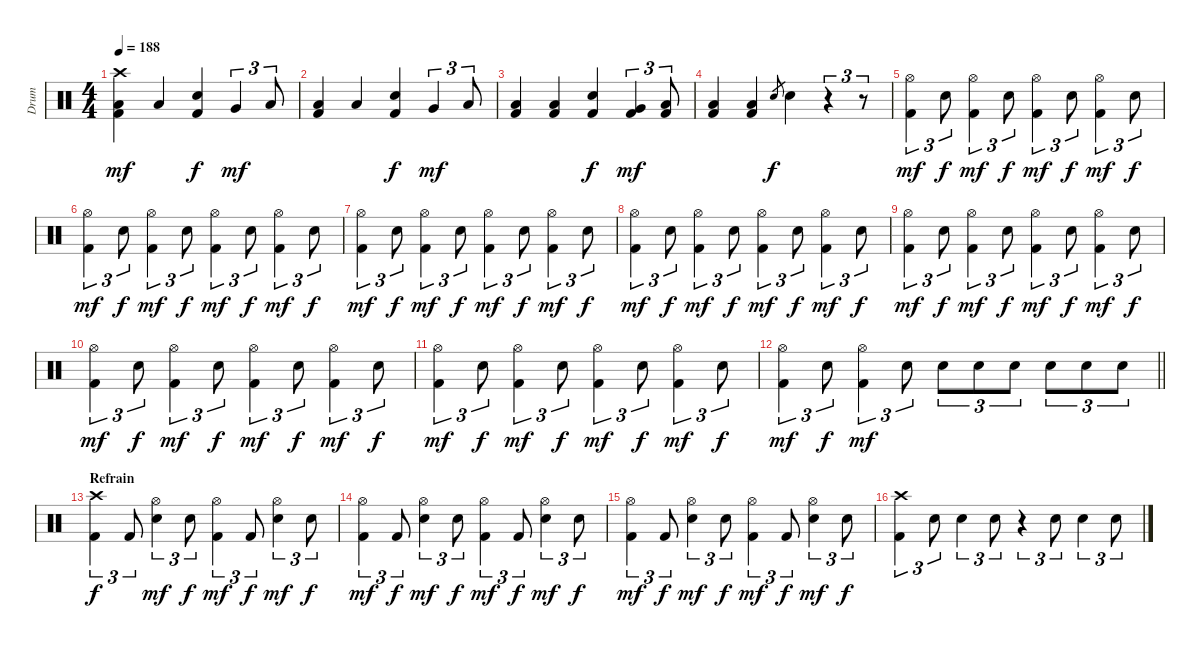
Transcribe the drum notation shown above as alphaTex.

\track ("Drum" "Drum") {instrument percussion}
\staff {score}
\articulation defaults
\ts (4 4)
\tempo 188
\clef neutral
\ks c
("Low Floor Tom (hit)" "Kick (hit) 2" "Crash high (hit)").4{dy mf} "Low Floor Tom (hit)".4 ("Snare (hit) 2" "Kick (hit) 2").4{dy f} "Very Low Tom (hit)".4{tu (3 2) dy mf} "Low Floor Tom (hit)".8{tu (3 2)} |
("Low Floor Tom (hit)" "Kick (hit) 2").4 "Low Floor Tom (hit)".4 ("Snare (hit) 2" "Kick (hit) 2").4{dy f} "Very Low Tom (hit)".4{tu (3 2) dy mf} "Low Floor Tom (hit)".8{tu (3 2)} |
("Low Floor Tom (hit)" "Kick (hit) 2").4 ("Low Floor Tom (hit)" "Kick (hit) 2").4 ("Snare (hit) 2" "Kick (hit) 2").4{dy f} ("Very Low Tom (hit)" "Kick (hit) 2").4{tu (3 2) dy mf} ("Low Floor Tom (hit)" "Kick (hit) 2").8{tu (3 2)} |
("Low Floor Tom (hit)" "Kick (hit) 2").4 ("Low Floor Tom (hit)" "Kick (hit) 2").4 "Snare (hit) 2".8{gr dy f} "Snare (hit) 2".4 r.4{tu (3 2)} r.8{tu (3 2)} |
("Kick (hit) 2" "Hi-Hat (open)").4{tu (3 2) dy mf} "Snare (hit) 2".8{tu (3 2) dy f} ("Kick (hit) 2" "Hi-Hat (open)").4{tu (3 2) dy mf} "Snare (hit) 2".8{tu (3 2) dy f} ("Hi-Hat (open)" "Kick (hit) 2").4{tu (3 2) dy mf} "Snare (hit) 2".8{tu (3 2) dy f} ("Kick (hit) 2" "Hi-Hat (open)").4{tu (3 2) dy mf} "Snare (hit) 2".8{tu (3 2) dy f} |
("Kick (hit) 2" "Hi-Hat (open)").4{tu (3 2) dy mf} "Snare (hit) 2".8{tu (3 2) dy f} ("Kick (hit) 2" "Hi-Hat (open)").4{tu (3 2) dy mf} "Snare (hit) 2".8{tu (3 2) dy f} ("Hi-Hat (open)" "Kick (hit) 2").4{tu (3 2) dy mf} "Snare (hit) 2".8{tu (3 2) dy f} ("Kick (hit) 2" "Hi-Hat (open)").4{tu (3 2) dy mf} "Snare (hit) 2".8{tu (3 2) dy f} |
("Kick (hit) 2" "Hi-Hat (open)").4{tu (3 2) dy mf} "Snare (hit) 2".8{tu (3 2) dy f} ("Kick (hit) 2" "Hi-Hat (open)").4{tu (3 2) dy mf} "Snare (hit) 2".8{tu (3 2) dy f} ("Hi-Hat (open)" "Kick (hit) 2").4{tu (3 2) dy mf} "Snare (hit) 2".8{tu (3 2) dy f} ("Kick (hit) 2" "Hi-Hat (open)").4{tu (3 2) dy mf} "Snare (hit) 2".8{tu (3 2) dy f} |
("Kick (hit) 2" "Hi-Hat (open)").4{tu (3 2) dy mf} "Snare (hit) 2".8{tu (3 2) dy f} ("Kick (hit) 2" "Hi-Hat (open)").4{tu (3 2) dy mf} "Snare (hit) 2".8{tu (3 2) dy f} ("Hi-Hat (open)" "Kick (hit) 2").4{tu (3 2) dy mf} "Snare (hit) 2".8{tu (3 2) dy f} ("Kick (hit) 2" "Hi-Hat (open)").4{tu (3 2) dy mf} "Snare (hit) 2".8{tu (3 2) dy f} |
("Kick (hit) 2" "Hi-Hat (open)").4{tu (3 2) dy mf} "Snare (hit) 2".8{tu (3 2) dy f} ("Kick (hit) 2" "Hi-Hat (open)").4{tu (3 2) dy mf} "Snare (hit) 2".8{tu (3 2) dy f} ("Hi-Hat (open)" "Kick (hit) 2").4{tu (3 2) dy mf} "Snare (hit) 2".8{tu (3 2) dy f} ("Kick (hit) 2" "Hi-Hat (open)").4{tu (3 2) dy mf} "Snare (hit) 2".8{tu (3 2) dy f} |
("Kick (hit) 2" "Hi-Hat (open)").4{tu (3 2) dy mf} "Snare (hit) 2".8{tu (3 2) dy f} ("Kick (hit) 2" "Hi-Hat (open)").4{tu (3 2) dy mf} "Snare (hit) 2".8{tu (3 2) dy f} ("Hi-Hat (open)" "Kick (hit) 2").4{tu (3 2) dy mf} "Snare (hit) 2".8{tu (3 2) dy f} ("Kick (hit) 2" "Hi-Hat (open)").4{tu (3 2) dy mf} "Snare (hit) 2".8{tu (3 2) dy f} |
("Kick (hit) 2" "Hi-Hat (open)").4{tu (3 2) dy mf} "Snare (hit) 2".8{tu (3 2) dy f} ("Kick (hit) 2" "Hi-Hat (open)").4{tu (3 2) dy mf} "Snare (hit) 2".8{tu (3 2) dy f} ("Hi-Hat (open)" "Kick (hit) 2").4{tu (3 2) dy mf} "Snare (hit) 2".8{tu (3 2) dy f} ("Kick (hit) 2" "Hi-Hat (open)").4{tu (3 2) dy mf} "Snare (hit) 2".8{tu (3 2) dy f} |
\barLineRight lightlight
("Kick (hit) 2" "Hi-Hat (open)").4{tu (3 2) dy mf} "Snare (hit) 2".8{tu (3 2) dy f} ("Kick (hit) 2" "Hi-Hat (open)").4{tu (3 2) dy mf} "Snare (hit) 2".8{tu (3 2)} "Snare (hit) 2".8{tu (3 2)} "Snare (hit) 2".8{tu (3 2)} "Snare (hit) 2".8{tu (3 2)} "Snare (hit) 2".8{tu (3 2)} "Snare (hit) 2".8{tu (3 2)} "Snare (hit) 2".8{tu (3 2)} |
\section ("" "Refrain")
("Kick (hit) 2" "Crash high (hit)").4{tu (3 2) dy f} "Kick (hit) 2".8{tu (3 2)} ("Snare (hit) 2" "Hi-Hat (open)").4{tu (3 2) dy mf} "Snare (hit) 2".8{tu (3 2) dy f} ("Kick (hit) 2" "Hi-Hat (open)").4{tu (3 2) dy mf} "Kick (hit) 2".8{tu (3 2) dy f} ("Snare (hit) 2" "Hi-Hat (open)").4{tu (3 2) dy mf} "Snare (hit) 2".8{tu (3 2) dy f} |
("Kick (hit) 2" "Hi-Hat (open)").4{tu (3 2) dy mf} "Kick (hit) 2".8{tu (3 2) dy f} ("Snare (hit) 2" "Hi-Hat (open)").4{tu (3 2) dy mf} "Snare (hit) 2".8{tu (3 2) dy f} ("Kick (hit) 2" "Hi-Hat (open)").4{tu (3 2) dy mf} "Kick (hit) 2".8{tu (3 2) dy f} ("Snare (hit) 2" "Hi-Hat (open)").4{tu (3 2) dy mf} "Snare (hit) 2".8{tu (3 2) dy f} |
("Kick (hit) 2" "Hi-Hat (open)").4{tu (3 2) dy mf} "Kick (hit) 2".8{tu (3 2) dy f} ("Snare (hit) 2" "Hi-Hat (open)").4{tu (3 2) dy mf} "Snare (hit) 2".8{tu (3 2) dy f} ("Kick (hit) 2" "Hi-Hat (open)").4{tu (3 2) dy mf} "Kick (hit) 2".8{tu (3 2) dy f} ("Snare (hit) 2" "Hi-Hat (open)").4{tu (3 2) dy mf} "Snare (hit) 2".8{tu (3 2) dy f} |
("Kick (hit) 2" "Crash high (hit)").4{tu (3 2)} "Snare (hit) 2".8{tu (3 2)} "Snare (hit) 2".4{tu (3 2)} "Snare (hit) 2".8{tu (3 2)} r.4{tu (3 2)} "Snare (hit) 2".8{tu (3 2)} "Snare (hit) 2".4{tu (3 2)} "Snare (hit) 2".8{tu (3 2)}
